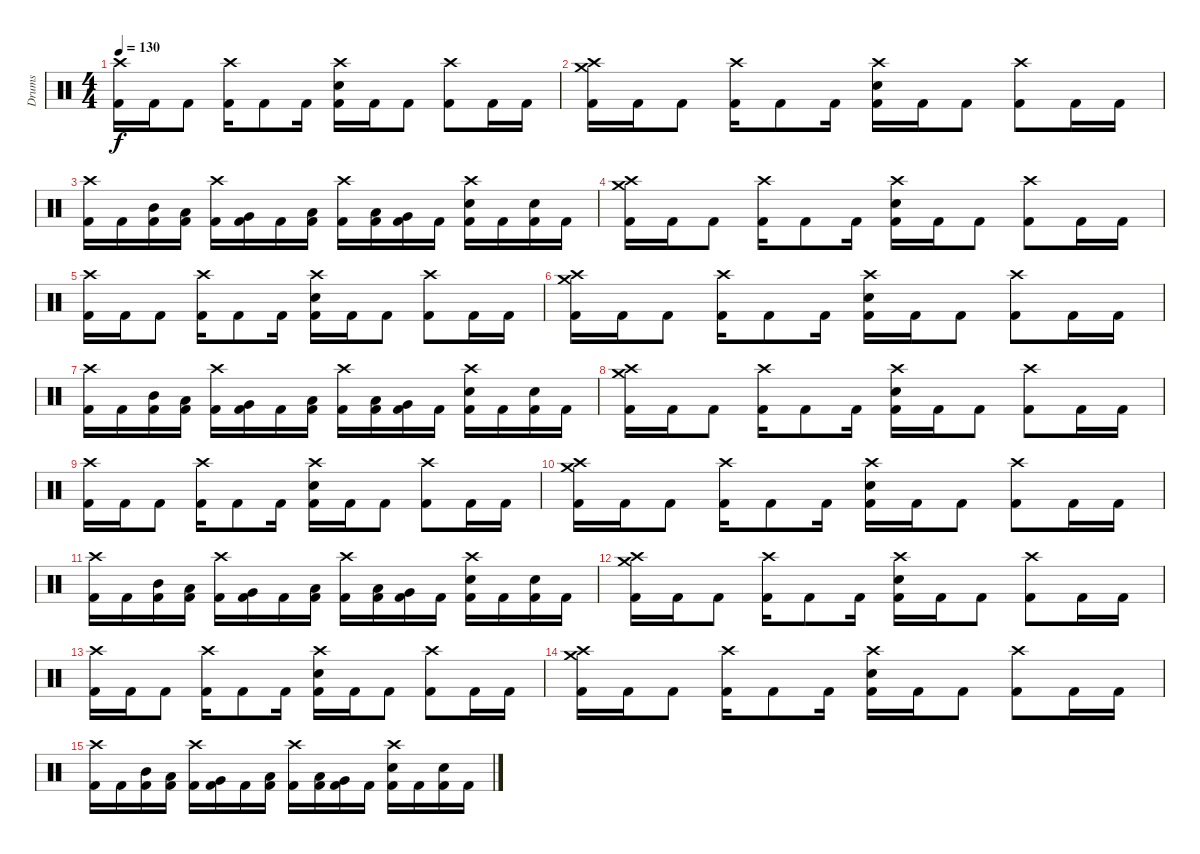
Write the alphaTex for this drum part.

\track ("Drums" "Drums") {instrument percussion}
\staff {score}
\articulation defaults
\ts (4 4)
\tempo 130
\clef neutral
\ks c
("Crash high (hit)" "Kick (hit) 2").16{dy f} "Kick (hit) 2".16 "Kick (hit) 2".8 ("Crash high (hit)" "Kick (hit) 2").16 "Kick (hit) 2".8 "Kick (hit) 2".16 ("Crash high (hit)" "Electric Snare (hit)" "Kick (hit) 2").16 "Kick (hit) 2".16 "Kick (hit) 2".8 ("Crash high (hit)" "Kick (hit) 2").8 "Kick (hit) 2".16 "Kick (hit) 2".16 |
("Crash medium (hit)" "Crash high (hit)" "Kick (hit) 2").16 "Kick (hit) 2".16 "Kick (hit) 2".8 ("Crash high (hit)" "Kick (hit) 2").16 "Kick (hit) 2".8 "Kick (hit) 2".16 ("Crash high (hit)" "Electric Snare (hit)" "Kick (hit) 2").16 "Kick (hit) 2".16 "Kick (hit) 2".8 ("Crash high (hit)" "Kick (hit) 2").8 "Kick (hit) 2".16 "Kick (hit) 2".16 |
("Crash high (hit)" "Kick (hit) 2").16 "Kick (hit) 2".16 ("Mid Tom (hit)" "Kick (hit) 2").16 ("Low Tom (hit)" "Kick (hit) 2").16 ("Crash high (hit)" "Kick (hit) 2").16 ("Very Low Tom (hit)" "Kick (hit) 2").16 "Kick (hit) 2".16 ("Low Tom (hit)" "Kick (hit) 2").16 ("Crash high (hit)" "Kick (hit) 2").16 ("Low Tom (hit)" "Kick (hit) 2").16 ("Very Low Tom (hit)" "Kick (hit) 2").16 "Kick (hit) 2".16 ("Crash high (hit)" "Electric Snare (hit)" "Kick (hit) 2").16 "Kick (hit) 2".16 ("Electric Snare (hit)" "Kick (hit) 2").16 "Kick (hit) 2".16 |
("Crash medium (hit)" "Crash high (hit)" "Kick (hit) 2").16 "Kick (hit) 2".16 "Kick (hit) 2".8 ("Crash high (hit)" "Kick (hit) 2").16 "Kick (hit) 2".8 "Kick (hit) 2".16 ("Crash high (hit)" "Electric Snare (hit)" "Kick (hit) 2").16 "Kick (hit) 2".16 "Kick (hit) 2".8 ("Crash high (hit)" "Kick (hit) 2").8 "Kick (hit) 2".16 "Kick (hit) 2".16 |
("Crash high (hit)" "Kick (hit) 2").16 "Kick (hit) 2".16 "Kick (hit) 2".8 ("Crash high (hit)" "Kick (hit) 2").16 "Kick (hit) 2".8 "Kick (hit) 2".16 ("Crash high (hit)" "Electric Snare (hit)" "Kick (hit) 2").16 "Kick (hit) 2".16 "Kick (hit) 2".8 ("Crash high (hit)" "Kick (hit) 2").8 "Kick (hit) 2".16 "Kick (hit) 2".16 |
("Crash medium (hit)" "Crash high (hit)" "Kick (hit) 2").16 "Kick (hit) 2".16 "Kick (hit) 2".8 ("Crash high (hit)" "Kick (hit) 2").16 "Kick (hit) 2".8 "Kick (hit) 2".16 ("Crash high (hit)" "Electric Snare (hit)" "Kick (hit) 2").16 "Kick (hit) 2".16 "Kick (hit) 2".8 ("Crash high (hit)" "Kick (hit) 2").8 "Kick (hit) 2".16 "Kick (hit) 2".16 |
("Crash high (hit)" "Kick (hit) 2").16 "Kick (hit) 2".16 ("Mid Tom (hit)" "Kick (hit) 2").16 ("Low Tom (hit)" "Kick (hit) 2").16 ("Crash high (hit)" "Kick (hit) 2").16 ("Very Low Tom (hit)" "Kick (hit) 2").16 "Kick (hit) 2".16 ("Low Tom (hit)" "Kick (hit) 2").16 ("Crash high (hit)" "Kick (hit) 2").16 ("Low Tom (hit)" "Kick (hit) 2").16 ("Very Low Tom (hit)" "Kick (hit) 2").16 "Kick (hit) 2".16 ("Crash high (hit)" "Electric Snare (hit)" "Kick (hit) 2").16 "Kick (hit) 2".16 ("Electric Snare (hit)" "Kick (hit) 2").16 "Kick (hit) 2".16 |
("Crash medium (hit)" "Crash high (hit)" "Kick (hit) 2").16{volume 8} "Kick (hit) 2".16 "Kick (hit) 2".8 ("Crash high (hit)" "Kick (hit) 2").16 "Kick (hit) 2".8 "Kick (hit) 2".16 ("Crash high (hit)" "Electric Snare (hit)" "Kick (hit) 2").16 "Kick (hit) 2".16 "Kick (hit) 2".8 ("Crash high (hit)" "Kick (hit) 2").8 "Kick (hit) 2".16 "Kick (hit) 2".16 |
("Crash high (hit)" "Kick (hit) 2").16 "Kick (hit) 2".16 "Kick (hit) 2".8 ("Crash high (hit)" "Kick (hit) 2").16 "Kick (hit) 2".8 "Kick (hit) 2".16 ("Crash high (hit)" "Electric Snare (hit)" "Kick (hit) 2").16 "Kick (hit) 2".16 "Kick (hit) 2".8 ("Crash high (hit)" "Kick (hit) 2").8 "Kick (hit) 2".16 "Kick (hit) 2".16 |
("Crash medium (hit)" "Crash high (hit)" "Kick (hit) 2").16 "Kick (hit) 2".16 "Kick (hit) 2".8 ("Crash high (hit)" "Kick (hit) 2").16 "Kick (hit) 2".8 "Kick (hit) 2".16 ("Crash high (hit)" "Electric Snare (hit)" "Kick (hit) 2").16 "Kick (hit) 2".16 "Kick (hit) 2".8 ("Crash high (hit)" "Kick (hit) 2").8 "Kick (hit) 2".16 "Kick (hit) 2".16 |
("Crash high (hit)" "Kick (hit) 2").16 "Kick (hit) 2".16 ("Mid Tom (hit)" "Kick (hit) 2").16 ("Low Tom (hit)" "Kick (hit) 2").16 ("Crash high (hit)" "Kick (hit) 2").16 ("Very Low Tom (hit)" "Kick (hit) 2").16 "Kick (hit) 2".16 ("Low Tom (hit)" "Kick (hit) 2").16 ("Crash high (hit)" "Kick (hit) 2").16 ("Low Tom (hit)" "Kick (hit) 2").16 ("Very Low Tom (hit)" "Kick (hit) 2").16 "Kick (hit) 2".16 ("Crash high (hit)" "Electric Snare (hit)" "Kick (hit) 2").16 "Kick (hit) 2".16 ("Electric Snare (hit)" "Kick (hit) 2").16 "Kick (hit) 2".16 |
("Crash medium (hit)" "Crash high (hit)" "Kick (hit) 2").16{volume 0} "Kick (hit) 2".16 "Kick (hit) 2".8 ("Crash high (hit)" "Kick (hit) 2").16 "Kick (hit) 2".8 "Kick (hit) 2".16 ("Crash high (hit)" "Electric Snare (hit)" "Kick (hit) 2").16 "Kick (hit) 2".16 "Kick (hit) 2".8 ("Crash high (hit)" "Kick (hit) 2").8 "Kick (hit) 2".16 "Kick (hit) 2".16 |
("Crash high (hit)" "Kick (hit) 2").16 "Kick (hit) 2".16 "Kick (hit) 2".8 ("Crash high (hit)" "Kick (hit) 2").16 "Kick (hit) 2".8 "Kick (hit) 2".16 ("Crash high (hit)" "Electric Snare (hit)" "Kick (hit) 2").16 "Kick (hit) 2".16 "Kick (hit) 2".8 ("Crash high (hit)" "Kick (hit) 2").8 "Kick (hit) 2".16 "Kick (hit) 2".16 |
("Crash medium (hit)" "Crash high (hit)" "Kick (hit) 2").16 "Kick (hit) 2".16 "Kick (hit) 2".8 ("Crash high (hit)" "Kick (hit) 2").16 "Kick (hit) 2".8 "Kick (hit) 2".16 ("Crash high (hit)" "Electric Snare (hit)" "Kick (hit) 2").16 "Kick (hit) 2".16 "Kick (hit) 2".8 ("Crash high (hit)" "Kick (hit) 2").8 "Kick (hit) 2".16 "Kick (hit) 2".16 |
("Crash high (hit)" "Kick (hit) 2").16 "Kick (hit) 2".16 ("Mid Tom (hit)" "Kick (hit) 2").16 ("Low Tom (hit)" "Kick (hit) 2").16 ("Crash high (hit)" "Kick (hit) 2").16 ("Very Low Tom (hit)" "Kick (hit) 2").16 "Kick (hit) 2".16 ("Low Tom (hit)" "Kick (hit) 2").16 ("Crash high (hit)" "Kick (hit) 2").16 ("Low Tom (hit)" "Kick (hit) 2").16 ("Very Low Tom (hit)" "Kick (hit) 2").16 "Kick (hit) 2".16 ("Crash high (hit)" "Electric Snare (hit)" "Kick (hit) 2").16 "Kick (hit) 2".16 ("Electric Snare (hit)" "Kick (hit) 2").16 "Kick (hit) 2".16
